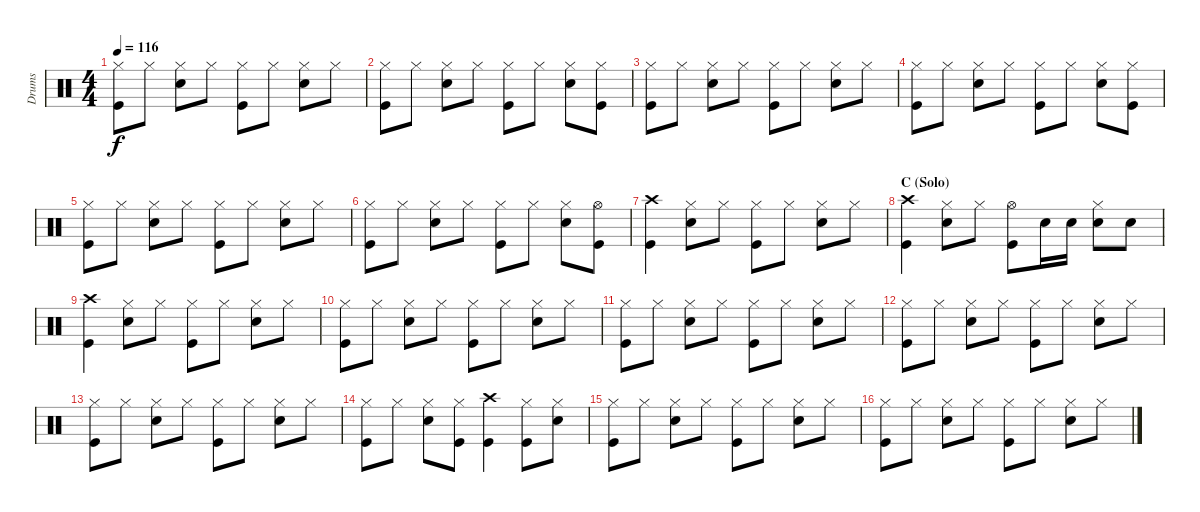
\track ("Drums" "Drums") {instrument percussion}
\staff {score}
\articulation defaults
\ts (4 4)
\tempo 116
\clef neutral
\ks c
("Hi-Hat (closed)" "Kick (hit)").8{dy f} "Hi-Hat (closed)".8 ("Hi-Hat (closed)" "Snare (hit) 2").8 "Hi-Hat (closed)".8 ("Hi-Hat (closed)" "Kick (hit)").8 "Hi-Hat (closed)".8 ("Hi-Hat (closed)" "Snare (hit) 2").8 "Hi-Hat (closed)".8 |
("Hi-Hat (closed)" "Kick (hit)").8 "Hi-Hat (closed)".8 ("Hi-Hat (closed)" "Snare (hit) 2").8 "Hi-Hat (closed)".8 ("Hi-Hat (closed)" "Kick (hit)").8 "Hi-Hat (closed)".8 ("Hi-Hat (closed)" "Snare (hit) 2").8 ("Hi-Hat (closed)" "Kick (hit)").8 |
("Hi-Hat (closed)" "Kick (hit)").8 "Hi-Hat (closed)".8 ("Hi-Hat (closed)" "Snare (hit) 2").8 "Hi-Hat (closed)".8 ("Hi-Hat (closed)" "Kick (hit)").8 "Hi-Hat (closed)".8 ("Hi-Hat (closed)" "Snare (hit) 2").8 "Hi-Hat (closed)".8 |
("Hi-Hat (closed)" "Kick (hit)").8 "Hi-Hat (closed)".8 ("Hi-Hat (closed)" "Snare (hit) 2").8 "Hi-Hat (closed)".8 ("Hi-Hat (closed)" "Kick (hit)").8 "Hi-Hat (closed)".8 ("Hi-Hat (closed)" "Snare (hit) 2").8 ("Hi-Hat (closed)" "Kick (hit)").8 |
("Hi-Hat (closed)" "Kick (hit)").8 "Hi-Hat (closed)".8 ("Hi-Hat (closed)" "Snare (hit) 2").8 "Hi-Hat (closed)".8 ("Hi-Hat (closed)" "Kick (hit)").8 "Hi-Hat (closed)".8 ("Hi-Hat (closed)" "Snare (hit) 2").8 "Hi-Hat (closed)".8 |
("Hi-Hat (closed)" "Kick (hit)").8 "Hi-Hat (closed)".8 ("Hi-Hat (closed)" "Snare (hit) 2").8 "Hi-Hat (closed)".8 ("Hi-Hat (closed)" "Kick (hit)").8 "Hi-Hat (closed)".8 ("Hi-Hat (closed)" "Snare (hit) 2").8 ("Hi-Hat (open)" "Kick (hit)").8 |
("Crash high (hit)" "Kick (hit)").4 ("Hi-Hat (closed)" "Snare (hit) 2").8 "Hi-Hat (closed)".8 ("Hi-Hat (closed)" "Kick (hit)").8 "Hi-Hat (closed)".8 ("Hi-Hat (closed)" "Snare (hit) 2").8 "Hi-Hat (closed)".8 |
\section ("" "C (Solo)")
("Crash high (hit)" "Kick (hit)").4 ("Hi-Hat (closed)" "Snare (hit) 2").8 "Hi-Hat (closed)".8 ("Hi-Hat (open)" "Kick (hit)").8 "Electric Snare (hit)".16 "Electric Snare (hit)".16 ("Hi-Hat (closed)" "Electric Snare (hit)").8 "Snare (hit) 2".8 |
("Crash high (hit)" "Kick (hit)").4 ("Hi-Hat (closed)" "Snare (hit) 2").8 "Hi-Hat (closed)".8 ("Hi-Hat (closed)" "Kick (hit)").8 "Hi-Hat (closed)".8 ("Hi-Hat (closed)" "Snare (hit) 2").8 "Hi-Hat (closed)".8 |
("Hi-Hat (closed)" "Kick (hit)").8 "Hi-Hat (closed)".8 ("Hi-Hat (closed)" "Snare (hit) 2").8 "Hi-Hat (closed)".8 ("Hi-Hat (closed)" "Kick (hit)").8 "Hi-Hat (closed)".8 ("Hi-Hat (closed)" "Snare (hit) 2").8 "Hi-Hat (closed)".8 |
("Hi-Hat (closed)" "Kick (hit)").8 "Hi-Hat (closed)".8 ("Hi-Hat (closed)" "Snare (hit) 2").8 "Hi-Hat (closed)".8 ("Hi-Hat (closed)" "Kick (hit)").8 "Hi-Hat (closed)".8 ("Hi-Hat (closed)" "Snare (hit) 2").8 "Hi-Hat (closed)".8 |
("Hi-Hat (closed)" "Kick (hit)").8 "Hi-Hat (closed)".8 ("Hi-Hat (closed)" "Snare (hit) 2").8 "Hi-Hat (closed)".8 ("Hi-Hat (closed)" "Kick (hit)").8 "Hi-Hat (closed)".8 ("Hi-Hat (closed)" "Snare (hit) 2").8 "Hi-Hat (closed)".8 |
("Hi-Hat (closed)" "Kick (hit)").8 "Hi-Hat (closed)".8 ("Hi-Hat (closed)" "Snare (hit) 2").8 "Hi-Hat (closed)".8 ("Hi-Hat (closed)" "Kick (hit)").8 "Hi-Hat (closed)".8 ("Hi-Hat (closed)" "Snare (hit) 2").8 "Hi-Hat (closed)".8 |
("Hi-Hat (closed)" "Kick (hit)").8 "Hi-Hat (closed)".8 ("Hi-Hat (closed)" "Snare (hit) 2").8 ("Hi-Hat (closed)" "Kick (hit)").8 ("Crash high (hit)" "Kick (hit)").4 ("Hi-Hat (closed)" "Kick (hit)").8 ("Hi-Hat (closed)" "Snare (hit) 2").8 |
("Hi-Hat (closed)" "Kick (hit)").8 "Hi-Hat (closed)".8 ("Hi-Hat (closed)" "Snare (hit) 2").8 "Hi-Hat (closed)".8 ("Hi-Hat (closed)" "Kick (hit)").8 "Hi-Hat (closed)".8 ("Hi-Hat (closed)" "Snare (hit) 2").8 "Hi-Hat (closed)".8 |
("Hi-Hat (closed)" "Kick (hit)").8 "Hi-Hat (closed)".8 ("Hi-Hat (closed)" "Snare (hit) 2").8 "Hi-Hat (closed)".8 ("Hi-Hat (closed)" "Kick (hit)").8 "Hi-Hat (closed)".8 ("Hi-Hat (closed)" "Snare (hit) 2").8 "Hi-Hat (closed)".8
